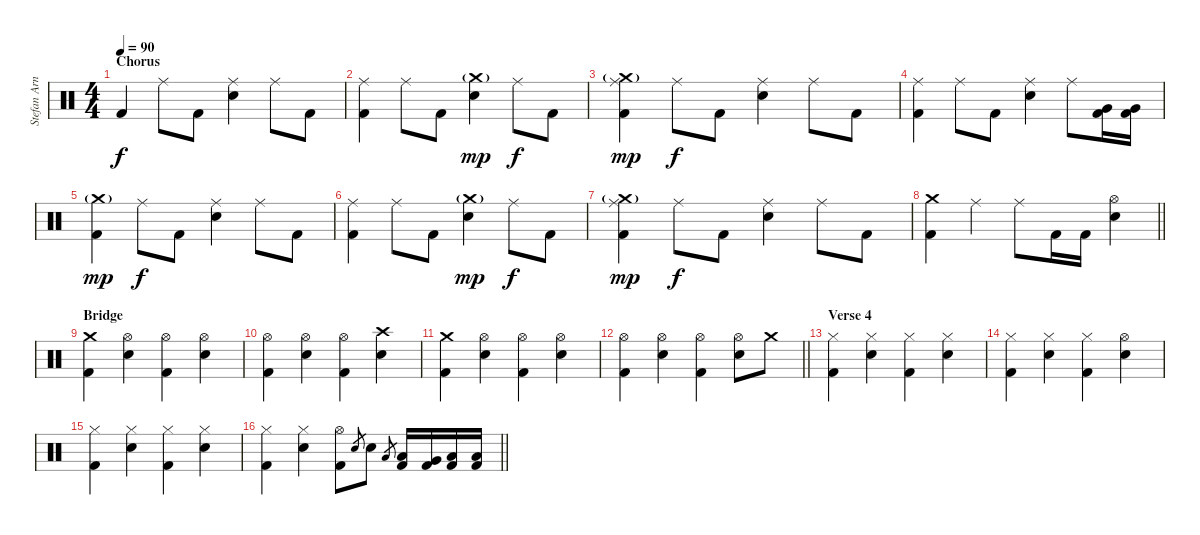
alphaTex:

\track ("Stefan Arnold" "Stefan Arn") {instrument percussion}
\staff {score}
\articulation defaults
\ts (4 4)
\section ("" "Chorus")
\tempo 90
\clef neutral
\ks c "Kick (hit) 2".4{dy f} "Ride (middle)".8 "Kick (hit) 2".8
("Ride (middle)" "Electric Snare (hit)").4 "Ride (middle)".8 "Kick (hit) 2".8 |
("Ride (middle)" "Kick (hit) 2").4 "Ride (middle)".8 "Kick (hit) 2".8 ("Crash medium (hit)"{g} "Electric Snare (hit)").4{dy mp} "Ride (middle)".8{dy f} "Kick (hit) 2".8 |
("Ride (middle)" "Crash medium (hit)"{g} "Kick (hit) 2").4{dy mp} "Ride (middle)".8{dy f} "Kick (hit) 2".8 ("Ride (middle)" "Electric Snare (hit)").4 "Ride (middle)".8 "Kick (hit) 2".8 |
("Ride (middle)" "Kick (hit) 2").4 "Ride (middle)".8 "Kick (hit) 2".8 ("Ride (middle)" "Electric Snare (hit)").4 "Ride (middle)".8 ("Very Low Tom (hit)" "Kick (hit) 2").16 ("Very Low Tom (hit)" "Kick (hit) 2").16 |
("Crash medium (hit)"{g} "Kick (hit) 2").4{dy mp} "Ride (middle)".8{dy f} "Kick (hit) 2".8 ("Ride (middle)" "Electric Snare (hit)").4 "Ride (middle)".8 "Kick (hit) 2".8 |
("Ride (middle)" "Kick (hit) 2").4 "Ride (middle)".8 "Kick (hit) 2".8 ("Crash medium (hit)"{g} "Electric Snare (hit)").4{dy mp} "Ride (middle)".8{dy f} "Kick (hit) 2".8 |
("Ride (middle)" "Crash medium (hit)"{g} "Kick (hit) 2").4{dy mp} "Ride (middle)".8{dy f} "Kick (hit) 2".8 ("Ride (middle)" "Electric Snare (hit)").4 "Ride (middle)".8 "Kick (hit) 2".8 |
\barLineRight lightlight
("Crash medium (hit)" "Kick (hit) 2").4 "Ride (middle)".4 "Ride (middle)".8 "Kick (hit) 2".16 "Kick (hit) 2".16 ("Hi-Hat (open)" "Electric Snare (hit)").4 |
\section ("" "Bridge")
("Crash medium (hit)" "Kick (hit) 2").4 ("Hi-Hat (open)" "Electric Snare (hit)").4 ("Hi-Hat (open)" "Kick (hit) 2").4 ("Hi-Hat (open)" "Electric Snare (hit)").4 |
("Hi-Hat (open)" "Kick (hit) 2").4 ("Hi-Hat (open)" "Electric Snare (hit)").4 ("Hi-Hat (open)" "Kick (hit) 2").4 ("Crash high (hit)" "Electric Snare (hit)").4 |
("Crash medium (hit)" "Kick (hit) 2").4 ("Hi-Hat (open)" "Electric Snare (hit)").4 ("Hi-Hat (open)" "Kick (hit) 2").4 ("Hi-Hat (open)" "Electric Snare (hit)").4 |
\barLineRight lightlight
("Hi-Hat (open)" "Kick (hit) 2").4 ("Hi-Hat (open)" "Electric Snare (hit)").4 ("Hi-Hat (open)" "Kick (hit) 2").4 ("Hi-Hat (open)" "Electric Snare (hit)").8 "Crash medium (hit)".8 |
\section ("" "Verse 4")
("Hi-Hat (closed)" "Kick (hit) 2").4 ("Hi-Hat (closed)" "Electric Snare (hit)").4 ("Hi-Hat (closed)" "Kick (hit) 2").4 ("Hi-Hat (closed)" "Electric Snare (hit)").4 |
("Hi-Hat (closed)" "Kick (hit) 2").4 ("Hi-Hat (closed)" "Electric Snare (hit)").4 ("Hi-Hat (closed)" "Kick (hit) 2").4 ("Hi-Hat (open)" "Electric Snare (hit)").4 |
("Hi-Hat (closed)" "Kick (hit) 2").4 ("Hi-Hat (closed)" "Electric Snare (hit)").4 ("Hi-Hat (closed)" "Kick (hit) 2").4 ("Hi-Hat (closed)" "Electric Snare (hit)").4 |
\barLineRight lightlight
("Hi-Hat (closed)" "Kick (hit) 2").4 ("Hi-Hat (closed)" "Electric Snare (hit)").4 ("Hi-Hat (open)" "Kick (hit) 2").8 "Electric Snare (hit)".8{gr} "Electric Snare (hit)".8 "Low Tom (hit)".8{gr} ("Low Tom (hit)" "Kick (hit) 2").16 ("Very Low Tom (hit)" "Kick (hit) 2").16 ("Low Floor Tom (hit)" "Kick (hit) 2").16 ("Low Floor Tom (hit)" "Kick (hit) 2").16
